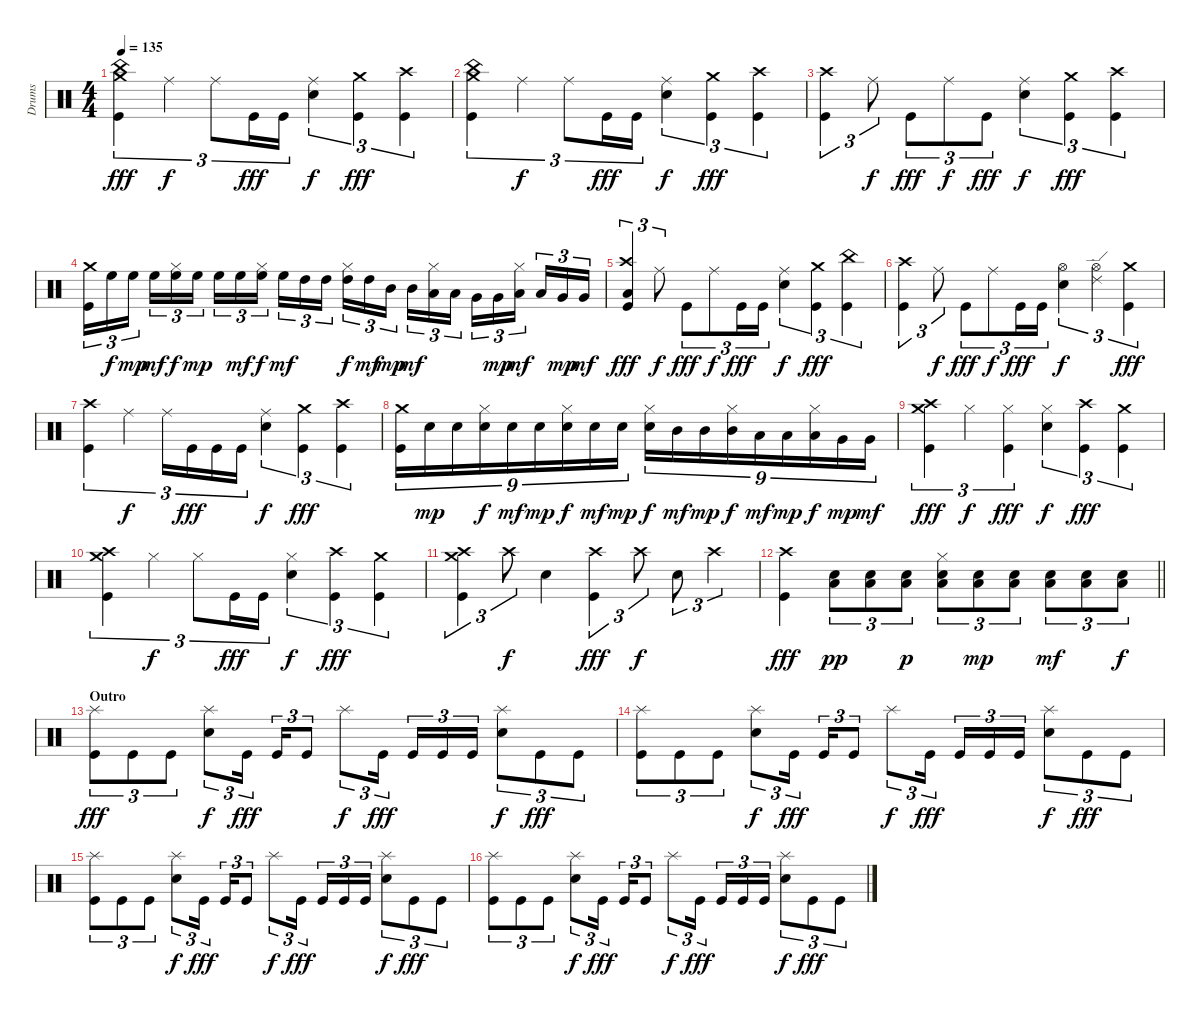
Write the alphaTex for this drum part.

\track ("Drums" "Drums") {instrument percussion}
\staff {score}
\articulation defaults
\ts (4 4)
\tempo 135
\clef neutral
\ks c
("Crash medium (hit)" "China (hit)" "Kick (hit)").4{tu (3 2) dy fff} "Ride (middle)".4{tu (3 2) dy f} "Ride (middle)".8{tu (3 2)} "Kick (hit)".16{tu (3 2) dy fff} "Kick (hit)".16{tu (3 2)} ("Ride (middle)" "Electric Snare (hit)").4{tu (3 2) dy f} ("Crash medium (hit)" "Kick (hit)").4{tu (3 2) dy fff} ("Crash high (hit)" "Kick (hit)").4{tu (3 2)} |
("Crash medium (hit)" "China (hit)" "Kick (hit)").4{tu (3 2)} "Ride (middle)".4{tu (3 2) dy f} "Ride (middle)".8{tu (3 2)} "Kick (hit)".16{tu (3 2) dy fff} "Kick (hit)".16{tu (3 2)} ("Ride (middle)" "Electric Snare (hit)").4{tu (3 2) dy f} ("Crash medium (hit)" "Kick (hit)").4{tu (3 2) dy fff} ("Crash high (hit)" "Kick (hit)").4{tu (3 2)} |
("Crash high (hit)" "Kick (hit)").4{tu (3 2)} "Ride (middle)".8{tu (3 2) dy f} "Kick (hit)".8{tu (3 2) dy fff} "Ride (middle)".8{tu (3 2) dy f} "Kick (hit)".8{tu (3 2) dy fff} ("Ride (middle)" "Electric Snare (hit)").4{tu (3 2) dy f} ("Crash medium (hit)" "Kick (hit)").4{tu (3 2) dy fff} ("Crash high (hit)" "Kick (hit)").4{tu (3 2)} |
("Crash medium (hit)" "Kick (hit)").16{tu (3 2)} "High Floor Tom (hit)".16{tu (3 2) dy f} "High Floor Tom (hit)".16{tu (3 2) dy mp beam splitsecondary} "High Floor Tom (hit)".16{tu (3 2) dy mf} ("Hi-Hat (closed)" "High Floor Tom (hit)").16{tu (3 2) dy f} "High Floor Tom (hit)".16{tu (3 2) dy mp} "High Floor Tom (hit)".16{tu (3 2)} "High Floor Tom (hit)".16{tu (3 2) dy mf} ("Hi-Hat (closed)" "High Floor Tom (hit)").16{tu (3 2) dy f beam splitsecondary} "High Floor Tom (hit)".16{tu (3 2) dy mf} "High Tom (hit)".16{tu (3 2)} "High Tom (hit)".16{tu (3 2)} ("Hi-Hat (closed)" "High Tom (hit)").16{tu (3 2) dy f} "High Tom (hit)".16{tu (3 2) dy mf} "Mid Tom (hit)".16{tu (3 2) dy mp beam splitsecondary} "Mid Tom (hit)".16{tu (3 2) dy mf} ("Hi-Hat (closed)" "Low Tom (hit)").16{tu (3 2)} "Low Tom (hit)".16{tu (3 2)} "Very Low Tom (hit)".16{tu (3 2)} "Very Low Tom (hit)".16{tu (3 2) dy mp} ("Hi-Hat (closed)" "Low Floor Tom (hit)").16{tu (3 2) dy mf beam splitsecondary} "Low Floor Tom (hit)".16{tu (3 2)} "Very Low Tom (hit)".16{tu (3 2) dy mp} "Very Low Tom (hit)".16{tu (3 2) dy mf} |
("Crash high (hit)" "Low Floor Tom (hit)" "Kick (hit)").4{tu (3 2) dy fff} "Ride (middle)".8{tu (3 2) dy f} "Kick (hit)".8{tu (3 2) dy fff} "Ride (middle)".8{tu (3 2) dy f} "Kick (hit)".16{tu (3 2) dy fff} "Kick (hit)".16{tu (3 2)} ("Ride (middle)" "Electric Snare (hit)").4{tu (3 2) dy f} ("Crash medium (hit)" "Kick (hit)").4{tu (3 2) dy fff} ("China (hit)" "Kick (hit)").4{tu (3 2)} |
("Crash high (hit)" "Kick (hit)").4{tu (3 2)} "Ride (middle)".8{tu (3 2) dy f} "Kick (hit)".8{tu (3 2) dy fff} "Ride (middle)".8{tu (3 2) dy f} "Kick (hit)".16{tu (3 2) dy fff} "Kick (hit)".16{tu (3 2)} ("Hi-Hat (open)" "Electric Snare (hit)").4{tu (3 2) dy f} ("Ride (edge) 2" "Hi-Hat (open)").4{tu (3 2)} ("Crash medium (hit)" "Kick (hit)").4{tu (3 2) dy fff} |
("Crash high (hit)" "Kick (hit)").4{tu (3 2)} "Ride (middle)".4{tu (3 2) dy f} "Ride (middle)".16{tu (3 2)} "Kick (hit)".16{tu (3 2) dy fff} "Kick (hit)".16{tu (3 2)} "Kick (hit)".16{tu (3 2)} ("Ride (middle)" "Electric Snare (hit)").4{tu (3 2) dy f} ("Crash medium (hit)" "Kick (hit)").4{tu (3 2) dy fff} ("Crash high (hit)" "Kick (hit)").4{tu (3 2)} |
("Crash medium (hit)" "Kick (hit)").16{tu (9 8)} "Electric Snare (hit)".16{tu (9 8) dy mp} "Electric Snare (hit)".16{tu (9 8)} ("Hi-Hat (closed)" "Electric Snare (hit)").16{tu (9 8) dy f} "Electric Snare (hit)".16{tu (9 8) dy mf} "Electric Snare (hit)".16{tu (9 8) dy mp} ("Hi-Hat (closed)" "Electric Snare (hit)").16{tu (9 8) dy f} "Electric Snare (hit)".16{tu (9 8) dy mf} "Electric Snare (hit)".16{tu (9 8) dy mp} ("Hi-Hat (closed)" "Electric Snare (hit)").16{tu (9 8) dy f} "Mid Tom (hit)".16{tu (9 8) dy mf} "Mid Tom (hit)".16{tu (9 8) dy mp} ("Hi-Hat (closed)" "Mid Tom (hit)").16{tu (9 8) dy f} "Low Tom (hit)".16{tu (9 8) dy mf} "Low Tom (hit)".16{tu (9 8) dy mp} ("Hi-Hat (closed)" "Low Tom (hit)").16{tu (9 8) dy f} "Very Low Tom (hit)".16{tu (9 8) dy mp} "Very Low Tom (hit)".16{tu (9 8) dy mf} |
("Crash medium (hit)" "Crash high (hit)" "Kick (hit)").4{tu (3 2) dy fff} "Hi-Hat (closed)".4{tu (3 2) dy f} ("Hi-Hat (closed)" "Kick (hit)").4{tu (3 2) dy fff} ("Hi-Hat (closed)" "Electric Snare (hit)").4{tu (3 2) dy f} ("Crash high (hit)" "Kick (hit)").4{tu (3 2) dy fff} ("Crash medium (hit)" "Kick (hit)").4{tu (3 2)} |
("Crash medium (hit)" "Crash high (hit)" "Kick (hit)").4{tu (3 2)} "Hi-Hat (closed)".4{tu (3 2) dy f} "Hi-Hat (closed)".8{tu (3 2)} "Kick (hit)".16{tu (3 2) dy fff} "Kick (hit)".16{tu (3 2)} ("Hi-Hat (closed)" "Electric Snare (hit)").4{tu (3 2) dy f} ("Crash high (hit)" "Kick (hit)").4{tu (3 2) dy fff} ("Crash medium (hit)" "Kick (hit)").4{tu (3 2)} |
("Crash medium (hit)" "Crash high (hit)" "Kick (hit)").4{tu (3 2)} "Crash high (hit)".8{tu (3 2) dy f} "Electric Snare (hit)".4 ("Crash high (hit)" "Kick (hit)").4{tu (3 2) dy fff} "Crash high (hit)".8{tu (3 2) dy f} "Electric Snare (hit)".8{tu (3 2)} "Crash high (hit)".4{tu (3 2)} |
\barLineRight lightlight
("Crash high (hit)" "Kick (hit)").4{dy fff} ("Electric Snare (hit)" "Low Floor Tom (hit)").8{tu (3 2) dy pp} ("Electric Snare (hit)" "Low Floor Tom (hit)").8{tu (3 2)} ("Electric Snare (hit)" "Low Floor Tom (hit)").8{tu (3 2) dy p} ("Hi-Hat (closed)" "Electric Snare (hit)" "Low Floor Tom (hit)").8{tu (3 2)} ("Electric Snare (hit)" "Low Floor Tom (hit)").8{tu (3 2) dy mp} ("Electric Snare (hit)" "Low Floor Tom (hit)").8{tu (3 2)} ("Electric Snare (hit)" "Low Floor Tom (hit)").8{tu (3 2) dy mf} ("Electric Snare (hit)" "Low Floor Tom (hit)").8{tu (3 2)} ("Electric Snare (hit)" "Low Floor Tom (hit)").8{tu (3 2) dy f} |
\section ("" "Outro")
("Splash (hit)" "Kick (hit)").8{tu (3 2) dy fff} "Kick (hit)".8{tu (3 2)} "Kick (hit)".8{tu (3 2)} ("Splash (hit)" "Electric Snare (hit)").8{tu (3 2) dy f} "Kick (hit)".16{tu (3 2) dy fff beam splitsecondary} "Kick (hit)".16{tu (3 2)} "Kick (hit)".8{tu (3 2)} "Splash (hit)".8{tu (3 2) dy f} "Kick (hit)".16{tu (3 2) dy fff beam splitsecondary} "Kick (hit)".16{tu (3 2)} "Kick (hit)".16{tu (3 2)} "Kick (hit)".16{tu (3 2)} ("Splash (hit)" "Electric Snare (hit)").8{tu (3 2) dy f} "Kick (hit)".8{tu (3 2) dy fff} "Kick (hit)".8{tu (3 2)} |
("Splash (hit)" "Kick (hit)").8{tu (3 2)} "Kick (hit)".8{tu (3 2)} "Kick (hit)".8{tu (3 2)} ("Splash (hit)" "Electric Snare (hit)").8{tu (3 2) dy f} "Kick (hit)".16{tu (3 2) dy fff beam splitsecondary} "Kick (hit)".16{tu (3 2)} "Kick (hit)".8{tu (3 2)} "Splash (hit)".8{tu (3 2) dy f} "Kick (hit)".16{tu (3 2) dy fff beam splitsecondary} "Kick (hit)".16{tu (3 2)} "Kick (hit)".16{tu (3 2)} "Kick (hit)".16{tu (3 2)} ("Splash (hit)" "Electric Snare (hit)").8{tu (3 2) dy f} "Kick (hit)".8{tu (3 2) dy fff} "Kick (hit)".8{tu (3 2)} |
("Splash (hit)" "Kick (hit)").8{tu (3 2)} "Kick (hit)".8{tu (3 2)} "Kick (hit)".8{tu (3 2)} ("Splash (hit)" "Electric Snare (hit)").8{tu (3 2) dy f} "Kick (hit)".16{tu (3 2) dy fff beam splitsecondary} "Kick (hit)".16{tu (3 2)} "Kick (hit)".8{tu (3 2)} "Splash (hit)".8{tu (3 2) dy f} "Kick (hit)".16{tu (3 2) dy fff beam splitsecondary} "Kick (hit)".16{tu (3 2)} "Kick (hit)".16{tu (3 2)} "Kick (hit)".16{tu (3 2)} ("Splash (hit)" "Electric Snare (hit)").8{tu (3 2) dy f} "Kick (hit)".8{tu (3 2) dy fff} "Kick (hit)".8{tu (3 2)} |
("Splash (hit)" "Kick (hit)").8{tu (3 2)} "Kick (hit)".8{tu (3 2)} "Kick (hit)".8{tu (3 2)} ("Splash (hit)" "Electric Snare (hit)").8{tu (3 2) dy f} "Kick (hit)".16{tu (3 2) dy fff beam splitsecondary} "Kick (hit)".16{tu (3 2)} "Kick (hit)".8{tu (3 2)} "Splash (hit)".8{tu (3 2) dy f} "Kick (hit)".16{tu (3 2) dy fff beam splitsecondary} "Kick (hit)".16{tu (3 2)} "Kick (hit)".16{tu (3 2)} "Kick (hit)".16{tu (3 2)} ("Splash (hit)" "Electric Snare (hit)").8{tu (3 2) dy f} "Kick (hit)".8{tu (3 2) dy fff} "Kick (hit)".8{tu (3 2)}
